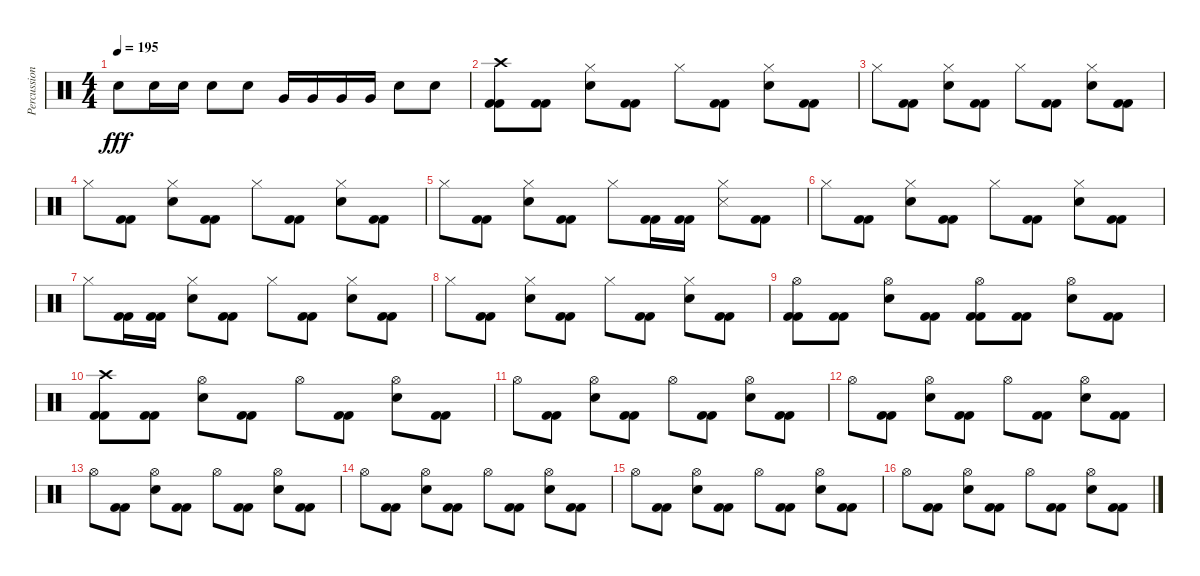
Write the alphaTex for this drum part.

\track ("Percussions" "Percussion") {instrument percussion}
\staff {score}
\articulation defaults
\ts (4 4)
\tempo 195
\clef neutral
\ks c "Electric Snare (hit)".8{dy fff} "Electric Snare (hit)".16 "Electric Snare (hit)".16 "Electric Snare (hit)".8 "Electric Snare (hit)".8 "Very Low Tom (hit)".16 "Very Low Tom (hit)".16 "Very Low Tom (hit)".16 "Very Low Tom (hit)".16 "Electric Snare (hit)".8 "Electric Snare (hit)".8
|
("Crash high (hit)" "Kick (hit) 2" "Kick (hit) 2").8 ("Kick (hit) 2" "Kick (hit) 2").8 ("Hi-Hat (closed)" "Electric Snare (hit)").8 ("Kick (hit) 2" "Kick (hit) 2").8 "Hi-Hat (closed)".8 ("Kick (hit) 2" "Kick (hit) 2").8 ("Hi-Hat (closed)" "Electric Snare (hit)").8 ("Kick (hit) 2" "Kick (hit) 2").8 |
"Hi-Hat (closed)".8 ("Kick (hit) 2" "Kick (hit) 2").8 ("Hi-Hat (closed)" "Electric Snare (hit)").8 ("Kick (hit) 2" "Kick (hit) 2").8 "Hi-Hat (closed)".8 ("Kick (hit) 2" "Kick (hit) 2").8 ("Hi-Hat (closed)" "Electric Snare (hit)").8 ("Kick (hit) 2" "Kick (hit) 2").8 |
"Hi-Hat (closed)".8 ("Kick (hit) 2" "Kick (hit) 2").8 ("Hi-Hat (closed)" "Electric Snare (hit)").8 ("Kick (hit) 2" "Kick (hit) 2").8 "Hi-Hat (closed)".8 ("Kick (hit) 2" "Kick (hit) 2").8 ("Hi-Hat (closed)" "Electric Snare (hit)").8 ("Kick (hit) 2" "Kick (hit) 2").8 |
"Hi-Hat (closed)".8 ("Kick (hit) 2" "Kick (hit) 2").8 ("Hi-Hat (closed)" "Electric Snare (hit)").8 ("Kick (hit) 2" "Kick (hit) 2").8 "Hi-Hat (closed)".8 ("Kick (hit) 2" "Kick (hit) 2").16 ("Kick (hit) 2" "Kick (hit) 2").16 ("Hi-Hat (closed)" "Snare (side stick) 3").8 ("Kick (hit) 2" "Kick (hit) 2").8 |
"Hi-Hat (closed)".8 ("Kick (hit) 2" "Kick (hit) 2").8 ("Hi-Hat (closed)" "Electric Snare (hit)").8 ("Kick (hit) 2" "Kick (hit) 2").8 "Hi-Hat (closed)".8 ("Kick (hit) 2" "Kick (hit) 2").8 ("Hi-Hat (closed)" "Electric Snare (hit)").8 ("Kick (hit) 2" "Kick (hit) 2").8 |
"Hi-Hat (closed)".8 ("Kick (hit) 2" "Kick (hit) 2").16 ("Kick (hit) 2" "Kick (hit) 2").16 ("Hi-Hat (closed)" "Electric Snare (hit)").8 ("Kick (hit) 2" "Kick (hit) 2").8 "Hi-Hat (closed)".8 ("Kick (hit) 2" "Kick (hit) 2").8 ("Hi-Hat (closed)" "Electric Snare (hit)").8 ("Kick (hit) 2" "Kick (hit) 2").8 |
"Hi-Hat (closed)".8 ("Kick (hit) 2" "Kick (hit) 2").8 ("Hi-Hat (closed)" "Electric Snare (hit)").8 ("Kick (hit) 2" "Kick (hit) 2").8 "Hi-Hat (closed)".8 ("Kick (hit) 2" "Kick (hit) 2").8 ("Hi-Hat (closed)" "Electric Snare (hit)").8 ("Kick (hit) 2" "Kick (hit) 2").8 |
("Hi-Hat (open)" "Kick (hit) 2" "Kick (hit) 2").8 ("Kick (hit) 2" "Kick (hit) 2").8 ("Hi-Hat (open)" "Electric Snare (hit)").8 ("Kick (hit) 2" "Kick (hit) 2").8 ("Hi-Hat (open)" "Kick (hit) 2" "Kick (hit) 2").8 ("Kick (hit) 2" "Kick (hit) 2").8 ("Hi-Hat (open)" "Electric Snare (hit)").8 ("Kick (hit) 2" "Kick (hit) 2").8 |
("Crash high (hit)" "Kick (hit) 2" "Kick (hit) 2").8 ("Kick (hit) 2" "Kick (hit) 2").8 ("Hi-Hat (open)" "Electric Snare (hit)").8 ("Kick (hit) 2" "Kick (hit) 2").8 "Hi-Hat (open)".8 ("Kick (hit) 2" "Kick (hit) 2").8 ("Hi-Hat (open)" "Electric Snare (hit)").8 ("Kick (hit) 2" "Kick (hit) 2").8 |
"Hi-Hat (open)".8 ("Kick (hit) 2" "Kick (hit) 2").8 ("Hi-Hat (open)" "Electric Snare (hit)").8 ("Kick (hit) 2" "Kick (hit) 2").8 "Hi-Hat (open)".8 ("Kick (hit) 2" "Kick (hit) 2").8 ("Hi-Hat (open)" "Electric Snare (hit)").8 ("Kick (hit) 2" "Kick (hit) 2").8 |
"Hi-Hat (open)".8 ("Kick (hit) 2" "Kick (hit) 2").8 ("Hi-Hat (open)" "Electric Snare (hit)").8 ("Kick (hit) 2" "Kick (hit) 2").8 "Hi-Hat (open)".8 ("Kick (hit) 2" "Kick (hit) 2").8 ("Hi-Hat (open)" "Electric Snare (hit)").8 ("Kick (hit) 2" "Kick (hit) 2").8 |
"Hi-Hat (open)".8 ("Kick (hit) 2" "Kick (hit) 2").8 ("Hi-Hat (open)" "Electric Snare (hit)").8 ("Kick (hit) 2" "Kick (hit) 2").8 "Hi-Hat (open)".8 ("Kick (hit) 2" "Kick (hit) 2").8 ("Hi-Hat (open)" "Electric Snare (hit)").8 ("Kick (hit) 2" "Kick (hit) 2").8 |
"Hi-Hat (open)".8 ("Kick (hit) 2" "Kick (hit) 2").8 ("Hi-Hat (open)" "Electric Snare (hit)").8 ("Kick (hit) 2" "Kick (hit) 2").8 "Hi-Hat (open)".8 ("Kick (hit) 2" "Kick (hit) 2").8 ("Hi-Hat (open)" "Electric Snare (hit)").8 ("Kick (hit) 2" "Kick (hit) 2").8 |
"Hi-Hat (open)".8 ("Kick (hit) 2" "Kick (hit) 2").8 ("Hi-Hat (open)" "Electric Snare (hit)").8 ("Kick (hit) 2" "Kick (hit) 2").8 "Hi-Hat (open)".8 ("Kick (hit) 2" "Kick (hit) 2").8 ("Hi-Hat (open)" "Electric Snare (hit)").8 ("Kick (hit) 2" "Kick (hit) 2").8 |
"Hi-Hat (open)".8 ("Kick (hit) 2" "Kick (hit) 2").8 ("Hi-Hat (open)" "Electric Snare (hit)").8 ("Kick (hit) 2" "Kick (hit) 2").8 "Hi-Hat (open)".8 ("Kick (hit) 2" "Kick (hit) 2").8 ("Hi-Hat (open)" "Electric Snare (hit)").8 ("Kick (hit) 2" "Kick (hit) 2").8
